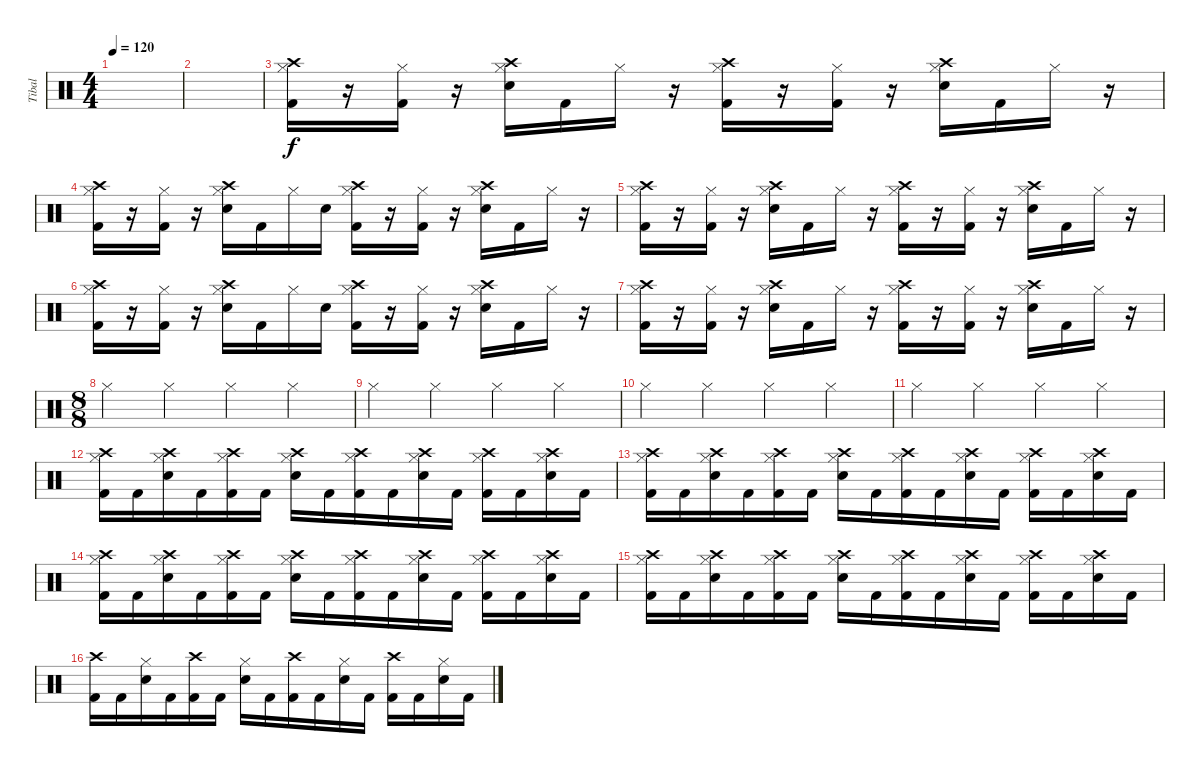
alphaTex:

\track ("Tibal" "Tibal") {instrument percussion}
\staff {score}
\articulation defaults
\ts (4 4)
\tempo 120
\clef neutral
\ks c
|
|
("Crash high (hit)" "Hi-Hat (closed)" "Kick (hit) 2").16 r.16 ("Hi-Hat (closed)" "Kick (hit) 2").16 r.16 ("Crash high (hit)" "Hi-Hat (closed)" "Snare (hit) 2").16 "Kick (hit) 2".16 "Hi-Hat (closed)".16 r.16 ("Crash high (hit)" "Hi-Hat (closed)" "Kick (hit) 2").16 r.16 ("Hi-Hat (closed)" "Kick (hit) 2").16 r.16 ("Crash high (hit)" "Hi-Hat (closed)" "Snare (hit) 2").16 "Kick (hit) 2".16 "Hi-Hat (closed)".16 r.16 |
("Crash high (hit)" "Hi-Hat (closed)" "Kick (hit) 2").16 r.16 ("Hi-Hat (closed)" "Kick (hit) 2").16 r.16 ("Crash high (hit)" "Hi-Hat (closed)" "Snare (hit) 2").16 "Kick (hit) 2".16 "Hi-Hat (closed)".16 "Snare (hit) 2".16 ("Crash high (hit)" "Hi-Hat (closed)" "Kick (hit) 2").16 r.16 ("Hi-Hat (closed)" "Kick (hit) 2").16 r.16 ("Crash high (hit)" "Hi-Hat (closed)" "Snare (hit) 2").16 "Kick (hit) 2".16 "Hi-Hat (closed)".16 r.16 |
("Crash high (hit)" "Hi-Hat (closed)" "Kick (hit) 2").16 r.16 ("Hi-Hat (closed)" "Kick (hit) 2").16 r.16 ("Crash high (hit)" "Hi-Hat (closed)" "Snare (hit) 2").16 "Kick (hit) 2".16 "Hi-Hat (closed)".16 r.16 ("Crash high (hit)" "Hi-Hat (closed)" "Kick (hit) 2").16 r.16 ("Hi-Hat (closed)" "Kick (hit) 2").16 r.16 ("Crash high (hit)" "Hi-Hat (closed)" "Snare (hit) 2").16 "Kick (hit) 2".16 "Hi-Hat (closed)".16 r.16 |
("Crash high (hit)" "Hi-Hat (closed)" "Kick (hit) 2").16 r.16 ("Hi-Hat (closed)" "Kick (hit) 2").16 r.16 ("Crash high (hit)" "Hi-Hat (closed)" "Snare (hit) 2").16 "Kick (hit) 2".16 "Hi-Hat (closed)".16 "Snare (hit) 2".16 ("Crash high (hit)" "Hi-Hat (closed)" "Kick (hit) 2").16 r.16 ("Hi-Hat (closed)" "Kick (hit) 2").16 r.16 ("Crash high (hit)" "Hi-Hat (closed)" "Snare (hit) 2").16 "Kick (hit) 2".16 "Hi-Hat (closed)".16 r.16 |
("Crash high (hit)" "Hi-Hat (closed)" "Kick (hit) 2").16 r.16 ("Hi-Hat (closed)" "Kick (hit) 2").16 r.16 ("Crash high (hit)" "Hi-Hat (closed)" "Snare (hit) 2").16 "Kick (hit) 2".16 "Hi-Hat (closed)".16 r.16 ("Crash high (hit)" "Hi-Hat (closed)" "Kick (hit) 2").16 r.16 ("Hi-Hat (closed)" "Kick (hit) 2").16 r.16 ("Crash high (hit)" "Hi-Hat (closed)" "Snare (hit) 2").16 "Kick (hit) 2".16 "Hi-Hat (closed)".16 r.16 |
\ts (8 8)
"Hi-Hat (closed)".4 "Hi-Hat (closed)".4 "Hi-Hat (closed)".4 "Hi-Hat (closed)".4 |
"Hi-Hat (closed)".4 "Hi-Hat (closed)".4 "Hi-Hat (closed)".4 "Hi-Hat (closed)".4 |
"Hi-Hat (closed)".4 "Hi-Hat (closed)".4 "Hi-Hat (closed)".4 "Hi-Hat (closed)".4 |
"Hi-Hat (closed)".4 "Hi-Hat (closed)".4 "Hi-Hat (closed)".4 "Hi-Hat (closed)".4 |
("Crash high (hit)" "Kick (hit) 2" "Hi-Hat (closed)").16 "Kick (hit) 2".16 ("Crash high (hit)" "Snare (hit) 2" "Hi-Hat (closed)").16 "Kick (hit) 2".16 ("Crash high (hit)" "Kick (hit) 2" "Hi-Hat (closed)").16 "Kick (hit) 2".16 ("Crash high (hit)" "Snare (hit) 2" "Hi-Hat (closed)").16 "Kick (hit) 2".16 ("Crash high (hit)" "Kick (hit) 2" "Hi-Hat (closed)").16 "Kick (hit) 2".16 ("Crash high (hit)" "Snare (hit) 2" "Hi-Hat (closed)").16 "Kick (hit) 2".16 ("Crash high (hit)" "Kick (hit) 2" "Hi-Hat (closed)").16 "Kick (hit) 2".16 ("Crash high (hit)" "Snare (hit) 2" "Hi-Hat (closed)").16 "Kick (hit) 2".16 |
("Crash high (hit)" "Kick (hit) 2" "Hi-Hat (closed)").16 "Kick (hit) 2".16 ("Crash high (hit)" "Snare (hit) 2" "Hi-Hat (closed)").16 "Kick (hit) 2".16 ("Crash high (hit)" "Kick (hit) 2" "Hi-Hat (closed)").16 "Kick (hit) 2".16 ("Crash high (hit)" "Snare (hit) 2" "Hi-Hat (closed)").16 "Kick (hit) 2".16 ("Crash high (hit)" "Kick (hit) 2" "Hi-Hat (closed)").16 "Kick (hit) 2".16 ("Crash high (hit)" "Snare (hit) 2" "Hi-Hat (closed)").16 "Kick (hit) 2".16 ("Crash high (hit)" "Kick (hit) 2" "Hi-Hat (closed)").16 "Kick (hit) 2".16 ("Crash high (hit)" "Snare (hit) 2" "Hi-Hat (closed)").16 "Kick (hit) 2".16 |
("Crash high (hit)" "Kick (hit) 2" "Hi-Hat (closed)").16 "Kick (hit) 2".16 ("Crash high (hit)" "Snare (hit) 2" "Hi-Hat (closed)").16 "Kick (hit) 2".16 ("Crash high (hit)" "Kick (hit) 2" "Hi-Hat (closed)").16 "Kick (hit) 2".16 ("Crash high (hit)" "Snare (hit) 2" "Hi-Hat (closed)").16 "Kick (hit) 2".16 ("Crash high (hit)" "Kick (hit) 2" "Hi-Hat (closed)").16 "Kick (hit) 2".16 ("Crash high (hit)" "Snare (hit) 2" "Hi-Hat (closed)").16 "Kick (hit) 2".16 ("Crash high (hit)" "Kick (hit) 2" "Hi-Hat (closed)").16 "Kick (hit) 2".16 ("Crash high (hit)" "Snare (hit) 2" "Hi-Hat (closed)").16 "Kick (hit) 2".16 |
("Crash high (hit)" "Kick (hit) 2" "Hi-Hat (closed)").16 "Kick (hit) 2".16 ("Crash high (hit)" "Snare (hit) 2" "Hi-Hat (closed)").16 "Kick (hit) 2".16 ("Crash high (hit)" "Kick (hit) 2" "Hi-Hat (closed)").16 "Kick (hit) 2".16 ("Crash high (hit)" "Snare (hit) 2" "Hi-Hat (closed)").16 "Kick (hit) 2".16 ("Crash high (hit)" "Kick (hit) 2" "Hi-Hat (closed)").16 "Kick (hit) 2".16 ("Crash high (hit)" "Snare (hit) 2" "Hi-Hat (closed)").16 "Kick (hit) 2".16 ("Crash high (hit)" "Kick (hit) 2" "Hi-Hat (closed)").16 "Kick (hit) 2".16 ("Crash high (hit)" "Snare (hit) 2" "Hi-Hat (closed)").16 "Kick (hit) 2".16 |
("Crash high (hit)" "Kick (hit) 2").16 "Kick (hit) 2".16 ("Snare (hit) 2" "Hi-Hat (closed)").16 "Kick (hit) 2".16 ("Crash high (hit)" "Kick (hit) 2").16 "Kick (hit) 2".16 ("Snare (hit) 2" "Hi-Hat (closed)").16 "Kick (hit) 2".16 ("Crash high (hit)" "Kick (hit) 2").16 "Kick (hit) 2".16 ("Snare (hit) 2" "Hi-Hat (closed)").16 "Kick (hit) 2".16 ("Crash high (hit)" "Kick (hit) 2").16 "Kick (hit) 2".16 ("Snare (hit) 2" "Hi-Hat (closed)").16 "Kick (hit) 2".16
